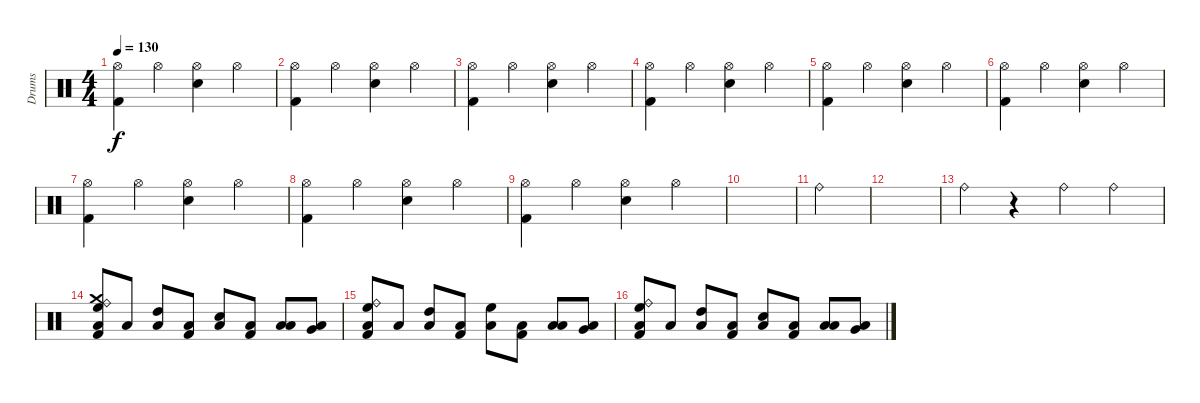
\track ("Drums" "Drums") {instrument percussion}
\staff {score}
\articulation defaults
\ts (4 4)
\tempo 130
\clef neutral
\ks c
("Kick (hit) 2" "Hi-Hat (open)").4{dy f} "Hi-Hat (open)".4 ("Snare (hit) 2" "Hi-Hat (open)").4 "Hi-Hat (open)".4 |
("Kick (hit) 2" "Hi-Hat (open)").4 "Hi-Hat (open)".4 ("Snare (hit) 2" "Hi-Hat (open)").4 "Hi-Hat (open)".4 |
("Kick (hit) 2" "Hi-Hat (open)").4 "Hi-Hat (open)".4 ("Snare (hit) 2" "Hi-Hat (open)").4 "Hi-Hat (open)".4 |
("Kick (hit) 2" "Hi-Hat (open)").4 "Hi-Hat (open)".4 ("Snare (hit) 2" "Hi-Hat (open)").4 "Hi-Hat (open)".4 |
("Kick (hit) 2" "Hi-Hat (open)").4 "Hi-Hat (open)".4 ("Snare (hit) 2" "Hi-Hat (open)").4 "Hi-Hat (open)".4 |
("Kick (hit) 2" "Hi-Hat (open)").4 "Hi-Hat (open)".4 ("Snare (hit) 2" "Hi-Hat (open)").4 "Hi-Hat (open)".4 |
("Kick (hit) 2" "Hi-Hat (open)").4 "Hi-Hat (open)".4 ("Snare (hit) 2" "Hi-Hat (open)").4 "Hi-Hat (open)".4 |
("Kick (hit) 2" "Hi-Hat (open)").4 "Hi-Hat (open)".4 ("Snare (hit) 2" "Hi-Hat (open)").4 "Hi-Hat (open)".4 |
("Kick (hit) 2" "Hi-Hat (open)").4 "Hi-Hat (open)".4 ("Snare (hit) 2" "Hi-Hat (open)").4 "Hi-Hat (open)".4 |
|
"Ride (bell)".4 |
|
"Ride (bell)".4 r.4 "Ride (bell)".4 "Ride (bell)".4 |
("Crash medium (hit)" "Ride (bell)" "High Floor Tom (hit)" "Kick (hit) 2" "Low Floor Tom (hit)").8 "Low Floor Tom (hit)".8 ("High Tom (hit)" "Low Floor Tom (hit)").8 ("Kick (hit) 2" "Low Floor Tom (hit)").8 ("Snare (hit) 2" "Low Floor Tom (hit)").8 ("Kick (hit) 2" "Low Floor Tom (hit)").8 ("Low Tom (hit)" "Low Floor Tom (hit)").8 ("Very Low Tom (hit)" "Low Floor Tom (hit)").8 |
("Ride (bell)" "High Floor Tom (hit)" "Kick (hit) 2" "Low Floor Tom (hit)").8 "Low Floor Tom (hit)".8 ("High Tom (hit)" "Low Floor Tom (hit)").8 ("Kick (hit) 2" "Low Floor Tom (hit)").8 ("High Floor Tom (hit)" "Low Floor Tom (hit)").8 ("Kick (hit) 2" "Low Floor Tom (hit)").8 ("Low Tom (hit)" "Low Floor Tom (hit)").8 ("Very Low Tom (hit)" "Low Floor Tom (hit)").8 |
("Ride (bell)" "High Floor Tom (hit)" "Kick (hit) 2" "Low Floor Tom (hit)").8 "Low Floor Tom (hit)".8 ("High Tom (hit)" "Low Floor Tom (hit)").8 ("Kick (hit) 2" "Low Floor Tom (hit)").8 ("Snare (hit) 2" "Low Floor Tom (hit)").8 ("Kick (hit) 2" "Low Floor Tom (hit)").8 ("Low Tom (hit)" "Low Floor Tom (hit)").8 ("Very Low Tom (hit)" "Low Floor Tom (hit)").8
